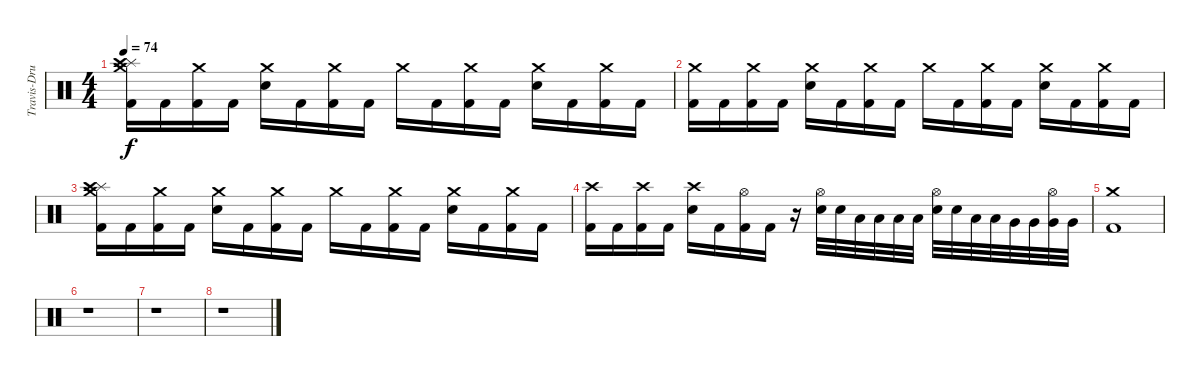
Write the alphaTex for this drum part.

\track ("Travis-Drums" "Travis-Dru") {instrument percussion}
\staff {score}
\articulation defaults
\ts (4 4)
\tempo 74
\clef neutral
\ks c
("Splash (hit)" "Crash high (hit)" "Crash medium (hit)" "Kick (hit) 2").16{dy f} "Kick (hit) 2".16 ("Crash medium (hit)" "Kick (hit) 2").16 "Kick (hit) 2".16 ("Crash medium (hit)" "Snare (hit) 2").16 "Kick (hit) 2".16 ("Crash medium (hit)" "Kick (hit) 2").16 "Kick (hit) 2".16 "Crash medium (hit)".16 "Kick (hit) 2".16 ("Crash medium (hit)" "Kick (hit) 2").16 "Kick (hit) 2".16 ("Crash medium (hit)" "Snare (hit) 2").16 "Kick (hit) 2".16 ("Crash medium (hit)" "Kick (hit) 2").16 "Kick (hit) 2".16 |
("Crash medium (hit)" "Kick (hit) 2").16 "Kick (hit) 2".16 ("Crash medium (hit)" "Kick (hit) 2").16 "Kick (hit) 2".16 ("Crash medium (hit)" "Snare (hit) 2").16 "Kick (hit) 2".16 ("Crash medium (hit)" "Kick (hit) 2").16 "Kick (hit) 2".16 "Crash medium (hit)".16 "Kick (hit) 2".16 ("Crash medium (hit)" "Kick (hit) 2").16 "Kick (hit) 2".16 ("Crash medium (hit)" "Snare (hit) 2").16 "Kick (hit) 2".16 ("Crash medium (hit)" "Kick (hit) 2").16 "Kick (hit) 2".16 |
("Splash (hit)" "Crash high (hit)" "Crash medium (hit)" "Kick (hit) 2").16 "Kick (hit) 2".16 ("Crash medium (hit)" "Kick (hit) 2").16 "Kick (hit) 2".16 ("Crash medium (hit)" "Snare (hit) 2").16 "Kick (hit) 2".16 ("Crash medium (hit)" "Kick (hit) 2").16 "Kick (hit) 2".16 "Crash medium (hit)".16 "Kick (hit) 2".16 ("Crash medium (hit)" "Kick (hit) 2").16 "Kick (hit) 2".16 ("Crash medium (hit)" "Snare (hit) 2").16 "Kick (hit) 2".16 ("Crash medium (hit)" "Kick (hit) 2").16 "Kick (hit) 2".16 |
("Crash high (hit)" "Kick (hit) 2").16 "Kick (hit) 2".16 ("Crash high (hit)" "Kick (hit) 2").16 "Kick (hit) 2".16 ("Crash high (hit)" "Snare (hit) 2").16 "Kick (hit) 2".16 ("Hi-Hat (open)" "Kick (hit) 2").16 "Kick (hit) 2".16 r.16 ("Hi-Hat (open)" "Electric Snare (hit)").32 "Electric Snare (hit)".32 "Low Tom (hit)".32 "Low Tom (hit)".32 "Low Tom (hit)".32 "Low Tom (hit)".32 ("Hi-Hat (open)" "Electric Snare (hit)").32 "Electric Snare (hit)".32 "Low Tom (hit)".32 "Low Tom (hit)".32 "Very Low Tom (hit)".32 "Very Low Tom (hit)".32 ("Hi-Hat (open)" "Very Low Tom (hit)").32 "Very Low Tom (hit)".32 |
("Crash medium (hit)" "Kick (hit) 2").1 |
r.1 |
r.1 |
r.1
